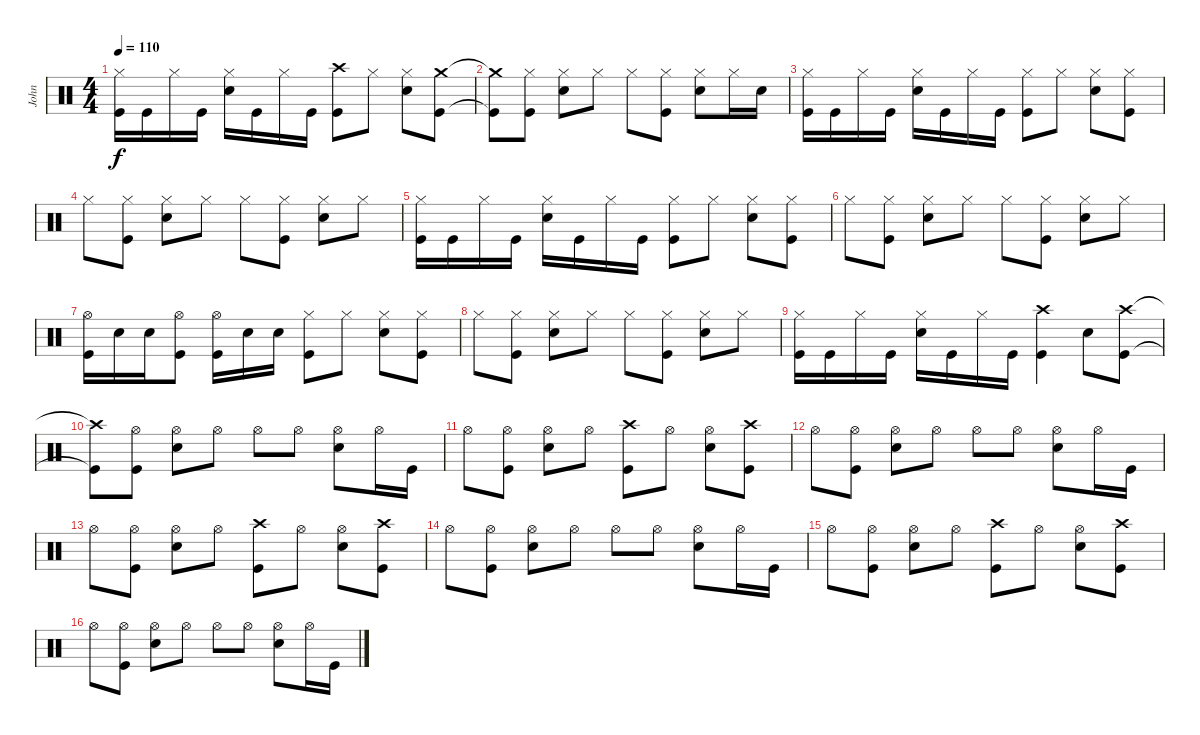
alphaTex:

\track ("John" "John") {instrument percussion}
\staff {score}
\articulation defaults
\ts (4 4)
\tempo 110
\clef neutral
\ks c
("Hi-Hat (closed)" "Kick (hit)").16{dy f} "Kick (hit)".16 "Hi-Hat (closed)".16 "Kick (hit)".16 ("Hi-Hat (closed)" "Snare (hit) 2").16 "Kick (hit)".16 "Hi-Hat (closed)".16 "Kick (hit)".16 ("Crash high (hit)" "Kick (hit)").8 "Hi-Hat (closed)".8 ("Hi-Hat (closed)" "Snare (hit) 2").8 ("Crash medium (hit)" "Kick (hit)").8 |
("Crash medium (hit)"{t} "Kick (hit)"{t}).8 ("Hi-Hat (closed)" "Kick (hit)").8 ("Snare (hit) 2" "Hi-Hat (closed)").8 "Hi-Hat (closed)".8 "Hi-Hat (closed)".8 ("Hi-Hat (closed)" "Kick (hit)").8 ("Hi-Hat (closed)" "Snare (hit) 2").8 "Hi-Hat (closed)".16 "Snare (hit) 2".16 |
("Hi-Hat (closed)" "Kick (hit)").16 "Kick (hit)".16 "Hi-Hat (closed)".16 "Kick (hit)".16 ("Hi-Hat (closed)" "Snare (hit) 2").16 "Kick (hit)".16 "Hi-Hat (closed)".16 "Kick (hit)".16 ("Hi-Hat (closed)" "Kick (hit)").8 "Hi-Hat (closed)".8 ("Hi-Hat (closed)" "Snare (hit) 2").8 ("Hi-Hat (closed)" "Kick (hit)").8 |
"Hi-Hat (closed)".8 ("Hi-Hat (closed)" "Kick (hit)").8 ("Snare (hit) 2" "Hi-Hat (closed)").8 "Hi-Hat (closed)".8 "Hi-Hat (closed)".8 ("Hi-Hat (closed)" "Kick (hit)").8 ("Hi-Hat (closed)" "Snare (hit) 2").8 "Hi-Hat (closed)".8 |
("Hi-Hat (closed)" "Kick (hit)").16 "Kick (hit)".16 "Hi-Hat (closed)".16 "Kick (hit)".16 ("Hi-Hat (closed)" "Snare (hit) 2").16 "Kick (hit)".16 "Hi-Hat (closed)".16 "Kick (hit)".16 ("Hi-Hat (closed)" "Kick (hit)").8 "Hi-Hat (closed)".8 ("Hi-Hat (closed)" "Snare (hit) 2").8 ("Hi-Hat (closed)" "Kick (hit)").8 |
"Hi-Hat (closed)".8 ("Hi-Hat (closed)" "Kick (hit)").8 ("Snare (hit) 2" "Hi-Hat (closed)").8 "Hi-Hat (closed)".8 "Hi-Hat (closed)".8 ("Hi-Hat (closed)" "Kick (hit)").8 ("Hi-Hat (closed)" "Snare (hit) 2").8 "Hi-Hat (closed)".8 |
("Hi-Hat (open)" "Kick (hit)").16 "Snare (hit) 2".16 "Snare (hit) 2".16 ("Kick (hit)" "Hi-Hat (open)").8 ("Hi-Hat (open)" "Kick (hit)").16 "Snare (hit) 2".16 "Snare (hit) 2".16 ("Hi-Hat (closed)" "Kick (hit)").8 "Hi-Hat (closed)".8 ("Hi-Hat (closed)" "Snare (hit) 2").8 ("Kick (hit)" "Hi-Hat (closed)").8 |
"Hi-Hat (closed)".8 ("Hi-Hat (closed)" "Kick (hit)").8 ("Snare (hit) 2" "Hi-Hat (closed)").8 "Hi-Hat (closed)".8 "Hi-Hat (closed)".8 ("Hi-Hat (closed)" "Kick (hit)").8 ("Hi-Hat (closed)" "Snare (hit) 2").8 "Hi-Hat (closed)".8 |
("Hi-Hat (closed)" "Kick (hit)").16 "Kick (hit)".16 "Hi-Hat (closed)".16 "Kick (hit)".16 ("Hi-Hat (closed)" "Snare (hit) 2").16 "Kick (hit)".16 "Hi-Hat (closed)".16 "Kick (hit)".16 ("Crash high (hit)" "Kick (hit)").4 "Snare (hit) 2".8 ("Crash high (hit)" "Kick (hit)").8 |
("Crash high (hit)"{t} "Kick (hit)"{t}).8 ("Hi-Hat (open)" "Kick (hit)").8 ("Hi-Hat (open)" "Snare (hit) 2").8 "Hi-Hat (open)".8 "Hi-Hat (open)".8 "Hi-Hat (open)".8 ("Hi-Hat (open)" "Snare (hit) 2").8 "Hi-Hat (open)".16 "Kick (hit)".16 |
"Hi-Hat (open)".8 ("Hi-Hat (open)" "Kick (hit)").8 ("Hi-Hat (open)" "Snare (hit) 2").8 "Hi-Hat (open)".8 ("Crash high (hit)" "Kick (hit)").8 "Hi-Hat (open)".8 ("Hi-Hat (open)" "Snare (hit) 2").8 ("Crash high (hit)" "Kick (hit)").8 |
"Hi-Hat (open)".8 ("Hi-Hat (open)" "Kick (hit)").8 ("Hi-Hat (open)" "Snare (hit) 2").8 "Hi-Hat (open)".8 "Hi-Hat (open)".8 "Hi-Hat (open)".8 ("Hi-Hat (open)" "Snare (hit) 2").8 "Hi-Hat (open)".16 "Kick (hit)".16 |
"Hi-Hat (open)".8 ("Hi-Hat (open)" "Kick (hit)").8 ("Hi-Hat (open)" "Snare (hit) 2").8 "Hi-Hat (open)".8 ("Crash high (hit)" "Kick (hit)").8 "Hi-Hat (open)".8 ("Hi-Hat (open)" "Snare (hit) 2").8 ("Crash high (hit)" "Kick (hit)").8 |
"Hi-Hat (open)".8 ("Hi-Hat (open)" "Kick (hit)").8 ("Hi-Hat (open)" "Snare (hit) 2").8 "Hi-Hat (open)".8 "Hi-Hat (open)".8 "Hi-Hat (open)".8 ("Hi-Hat (open)" "Snare (hit) 2").8 "Hi-Hat (open)".16 "Kick (hit)".16 |
"Hi-Hat (open)".8 ("Hi-Hat (open)" "Kick (hit)").8 ("Hi-Hat (open)" "Snare (hit) 2").8 "Hi-Hat (open)".8 ("Crash high (hit)" "Kick (hit)").8 "Hi-Hat (open)".8 ("Hi-Hat (open)" "Snare (hit) 2").8 ("Crash high (hit)" "Kick (hit)").8 |
"Hi-Hat (open)".8 ("Hi-Hat (open)" "Kick (hit)").8 ("Hi-Hat (open)" "Snare (hit) 2").8 "Hi-Hat (open)".8 "Hi-Hat (open)".8 "Hi-Hat (open)".8 ("Hi-Hat (open)" "Snare (hit) 2").8 "Hi-Hat (open)".16 "Kick (hit)".16
